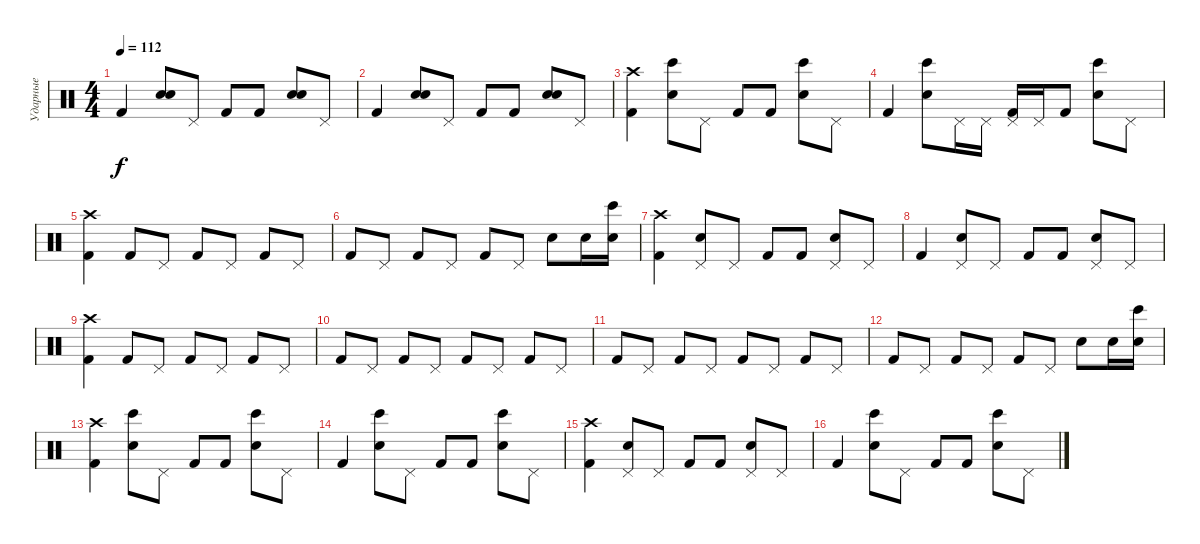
\track ("Ударные" "Ударные") {instrument percussion}
\staff {score}
\articulation defaults
\ts (4 4)
\tempo 112
\clef neutral
\ks c "Kick (hit) 2".4{dy f}
("Electric Snare (hit)" "Snare (hit) 2").8 "Pedal Hi-Hat (hit)".8 "Kick (hit) 2".8 "Kick (hit) 2".8 ("Electric Snare (hit)" "Snare (hit) 2").8 "Pedal Hi-Hat (hit)".8 |
"Kick (hit) 2".4 ("Electric Snare (hit)" "Snare (hit) 2").8 "Pedal Hi-Hat (hit)".8 "Kick (hit) 2".8 "Kick (hit) 2".8 ("Electric Snare (hit)" "Snare (hit) 2").8 "Pedal Hi-Hat (hit)".8 |
("Crash high (hit)" "Kick (hit) 2").4 ("Bongo High (hit)" "Snare (hit) 2").8 "Pedal Hi-Hat (hit)".8 "Kick (hit) 2".8 "Kick (hit) 2".8 ("Bongo High (hit)" "Snare (hit) 2").8 "Pedal Hi-Hat (hit)".8 |
"Kick (hit) 2".4 ("Bongo High (hit)" "Snare (hit) 2").8 "Pedal Hi-Hat (hit)".16 "Pedal Hi-Hat (hit)".16 ("Pedal Hi-Hat (hit)" "Kick (hit) 2").16 "Pedal Hi-Hat (hit)".16 "Kick (hit) 2".8 ("Bongo High (hit)" "Snare (hit) 2").8 "Pedal Hi-Hat (hit)".8 |
("Crash high (hit)" "Kick (hit) 2").4 "Kick (hit) 2".8 "Pedal Hi-Hat (hit)".8 "Kick (hit) 2".8 "Pedal Hi-Hat (hit)".8 "Kick (hit) 2".8 "Pedal Hi-Hat (hit)".8 |
"Kick (hit) 2".8 "Pedal Hi-Hat (hit)".8 "Kick (hit) 2".8 "Pedal Hi-Hat (hit)".8 "Kick (hit) 2".8 "Pedal Hi-Hat (hit)".8 "Snare (hit) 2".8 "Snare (hit) 2".16 ("Bongo High (hit)" "Snare (hit) 2").16 |
("Crash high (hit)" "Kick (hit) 2").4 ("Pedal Hi-Hat (hit)" "Snare (hit) 2").8 "Pedal Hi-Hat (hit)".8 "Kick (hit) 2".8 "Kick (hit) 2".8 ("Pedal Hi-Hat (hit)" "Snare (hit) 2").8 "Pedal Hi-Hat (hit)".8 |
"Kick (hit) 2".4 ("Pedal Hi-Hat (hit)" "Snare (hit) 2").8 "Pedal Hi-Hat (hit)".8 "Kick (hit) 2".8 "Kick (hit) 2".8 ("Pedal Hi-Hat (hit)" "Snare (hit) 2").8 "Pedal Hi-Hat (hit)".8 |
("Crash high (hit)" "Kick (hit) 2").4 "Kick (hit) 2".8 "Pedal Hi-Hat (hit)".8 "Kick (hit) 2".8 "Pedal Hi-Hat (hit)".8 "Kick (hit) 2".8 "Pedal Hi-Hat (hit)".8 |
"Kick (hit) 2".8 "Pedal Hi-Hat (hit)".8 "Kick (hit) 2".8 "Pedal Hi-Hat (hit)".8 "Kick (hit) 2".8 "Pedal Hi-Hat (hit)".8 "Kick (hit) 2".8 "Pedal Hi-Hat (hit)".8 |
"Kick (hit) 2".8 "Pedal Hi-Hat (hit)".8 "Kick (hit) 2".8 "Pedal Hi-Hat (hit)".8 "Kick (hit) 2".8 "Pedal Hi-Hat (hit)".8 "Kick (hit) 2".8 "Pedal Hi-Hat (hit)".8 |
"Kick (hit) 2".8 "Pedal Hi-Hat (hit)".8 "Kick (hit) 2".8 "Pedal Hi-Hat (hit)".8 "Kick (hit) 2".8 "Pedal Hi-Hat (hit)".8 "Snare (hit) 2".8 "Snare (hit) 2".16 ("Bongo High (hit)" "Snare (hit) 2").16 |
("Crash high (hit)" "Kick (hit) 2").4 ("Bongo High (hit)" "Snare (hit) 2").8 "Pedal Hi-Hat (hit)".8 "Kick (hit) 2".8 "Kick (hit) 2".8 ("Bongo High (hit)" "Snare (hit) 2").8 "Pedal Hi-Hat (hit)".8 |
"Kick (hit) 2".4 ("Bongo High (hit)" "Snare (hit) 2").8 "Pedal Hi-Hat (hit)".8 "Kick (hit) 2".8 "Kick (hit) 2".8 ("Bongo High (hit)" "Snare (hit) 2").8 "Pedal Hi-Hat (hit)".8 |
("Crash high (hit)" "Kick (hit) 2").4 ("Pedal Hi-Hat (hit)" "Snare (hit) 2").8 "Pedal Hi-Hat (hit)".8 "Kick (hit) 2".8 "Kick (hit) 2".8 ("Pedal Hi-Hat (hit)" "Snare (hit) 2").8 "Pedal Hi-Hat (hit)".8 |
"Kick (hit) 2".4 ("Bongo High (hit)" "Snare (hit) 2").8 "Pedal Hi-Hat (hit)".8 "Kick (hit) 2".8 "Kick (hit) 2".8 ("Bongo High (hit)" "Snare (hit) 2").8 "Pedal Hi-Hat (hit)".8
